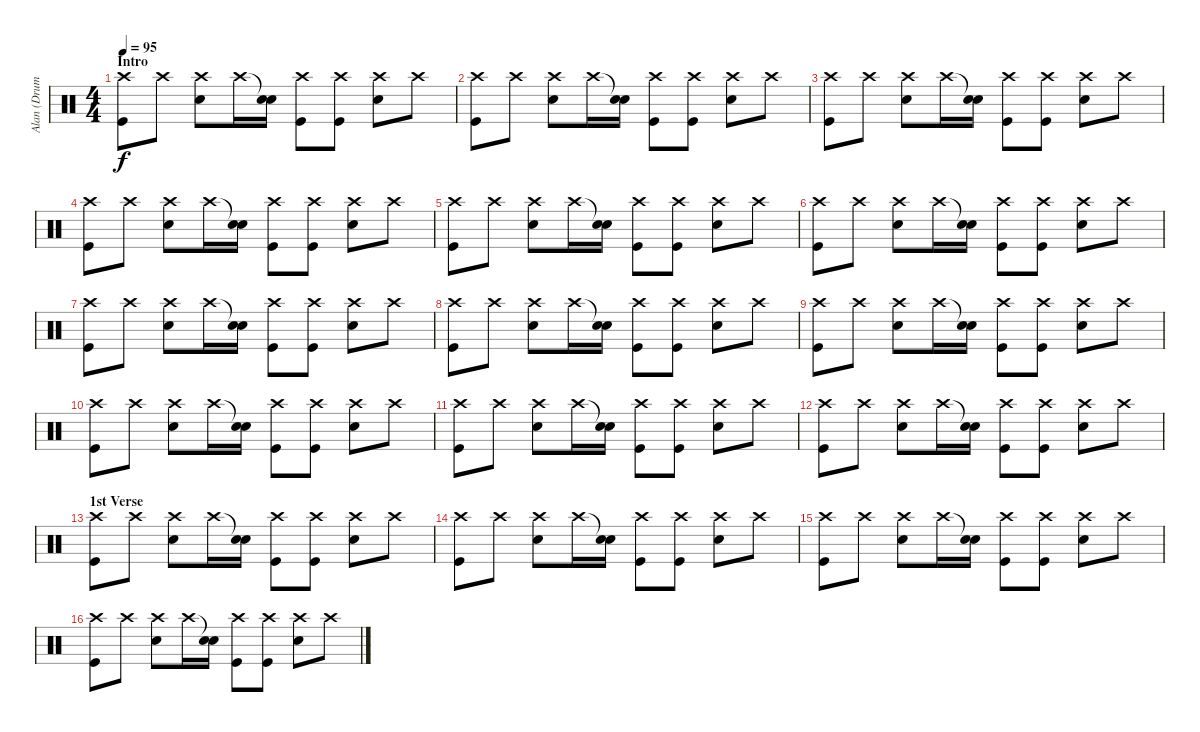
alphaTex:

\track ("Alan (Drums)" "Alan (Drum") {instrument percussion}
\staff {score}
\articulation defaults
\ts (4 4)
\section ("" "Intro")
\tempo 95
\clef neutral
\ks c
("Crash high (hit)" "Kick (hit)").8{dy f} "Crash high (hit)".8 ("Crash high (hit)" "Electric Snare (hit)").8 "Crash high (hit)".16 ("Snare (hit)"{t} "Electric Snare (hit)").16 ("Crash high (hit)" "Kick (hit)").8 ("Crash high (hit)" "Kick (hit)").8 ("Crash high (hit)" "Electric Snare (hit)").8 "Crash high (hit)".8 |
("Crash high (hit)" "Kick (hit)").8 "Crash high (hit)".8 ("Crash high (hit)" "Electric Snare (hit)").8 "Crash high (hit)".16 ("Snare (hit)"{t} "Electric Snare (hit)").16 ("Crash high (hit)" "Kick (hit)").8 ("Crash high (hit)" "Kick (hit)").8 ("Crash high (hit)" "Electric Snare (hit)").8 "Crash high (hit)".8 |
("Crash high (hit)" "Kick (hit)").8 "Crash high (hit)".8 ("Crash high (hit)" "Electric Snare (hit)").8 "Crash high (hit)".16 ("Snare (hit)"{t} "Electric Snare (hit)").16 ("Crash high (hit)" "Kick (hit)").8 ("Crash high (hit)" "Kick (hit)").8 ("Crash high (hit)" "Electric Snare (hit)").8 "Crash high (hit)".8 |
("Crash high (hit)" "Kick (hit)").8 "Crash high (hit)".8 ("Crash high (hit)" "Electric Snare (hit)").8 "Crash high (hit)".16 ("Snare (hit)"{t} "Electric Snare (hit)").16 ("Crash high (hit)" "Kick (hit)").8 ("Crash high (hit)" "Kick (hit)").8 ("Crash high (hit)" "Electric Snare (hit)").8 "Crash high (hit)".8 |
("Crash high (hit)" "Kick (hit)").8 "Crash high (hit)".8 ("Crash high (hit)" "Electric Snare (hit)").8 "Crash high (hit)".16 ("Snare (hit)"{t} "Electric Snare (hit)").16 ("Crash high (hit)" "Kick (hit)").8 ("Crash high (hit)" "Kick (hit)").8 ("Crash high (hit)" "Electric Snare (hit)").8 "Crash high (hit)".8 |
("Crash high (hit)" "Kick (hit)").8 "Crash high (hit)".8 ("Crash high (hit)" "Electric Snare (hit)").8 "Crash high (hit)".16 ("Snare (hit)"{t} "Electric Snare (hit)").16 ("Crash high (hit)" "Kick (hit)").8 ("Crash high (hit)" "Kick (hit)").8 ("Crash high (hit)" "Electric Snare (hit)").8 "Crash high (hit)".8 |
("Crash high (hit)" "Kick (hit)").8 "Crash high (hit)".8 ("Crash high (hit)" "Electric Snare (hit)").8 "Crash high (hit)".16 ("Snare (hit)"{t} "Electric Snare (hit)").16 ("Crash high (hit)" "Kick (hit)").8 ("Crash high (hit)" "Kick (hit)").8 ("Crash high (hit)" "Electric Snare (hit)").8 "Crash high (hit)".8 |
("Crash high (hit)" "Kick (hit)").8 "Crash high (hit)".8 ("Crash high (hit)" "Electric Snare (hit)").8 "Crash high (hit)".16 ("Snare (hit)"{t} "Electric Snare (hit)").16 ("Crash high (hit)" "Kick (hit)").8 ("Crash high (hit)" "Kick (hit)").8 ("Crash high (hit)" "Electric Snare (hit)").8 "Crash high (hit)".8 |
("Crash high (hit)" "Kick (hit)").8 "Crash high (hit)".8 ("Crash high (hit)" "Electric Snare (hit)").8 "Crash high (hit)".16 ("Snare (hit)"{t} "Electric Snare (hit)").16 ("Crash high (hit)" "Kick (hit)").8 ("Crash high (hit)" "Kick (hit)").8 ("Crash high (hit)" "Electric Snare (hit)").8 "Crash high (hit)".8 |
("Crash high (hit)" "Kick (hit)").8 "Crash high (hit)".8 ("Crash high (hit)" "Electric Snare (hit)").8 "Crash high (hit)".16 ("Snare (hit)"{t} "Electric Snare (hit)").16 ("Crash high (hit)" "Kick (hit)").8 ("Crash high (hit)" "Kick (hit)").8 ("Crash high (hit)" "Electric Snare (hit)").8 "Crash high (hit)".8 |
("Crash high (hit)" "Kick (hit)").8 "Crash high (hit)".8 ("Crash high (hit)" "Electric Snare (hit)").8 "Crash high (hit)".16 ("Snare (hit)"{t} "Electric Snare (hit)").16 ("Crash high (hit)" "Kick (hit)").8 ("Crash high (hit)" "Kick (hit)").8 ("Crash high (hit)" "Electric Snare (hit)").8 "Crash high (hit)".8 |
("Crash high (hit)" "Kick (hit)").8 "Crash high (hit)".8 ("Crash high (hit)" "Electric Snare (hit)").8 "Crash high (hit)".16 ("Snare (hit)"{t} "Electric Snare (hit)").16 ("Crash high (hit)" "Kick (hit)").8 ("Crash high (hit)" "Kick (hit)").8 ("Crash high (hit)" "Electric Snare (hit)").8 "Crash high (hit)".8 |
\section ("" "1st Verse")
("Crash high (hit)" "Kick (hit)").8 "Crash high (hit)".8 ("Crash high (hit)" "Electric Snare (hit)").8 "Crash high (hit)".16 ("Snare (hit)"{t} "Electric Snare (hit)").16 ("Crash high (hit)" "Kick (hit)").8 ("Crash high (hit)" "Kick (hit)").8 ("Crash high (hit)" "Electric Snare (hit)").8 "Crash high (hit)".8 |
("Crash high (hit)" "Kick (hit)").8 "Crash high (hit)".8 ("Crash high (hit)" "Electric Snare (hit)").8 "Crash high (hit)".16 ("Snare (hit)"{t} "Electric Snare (hit)").16 ("Crash high (hit)" "Kick (hit)").8 ("Crash high (hit)" "Kick (hit)").8 ("Crash high (hit)" "Electric Snare (hit)").8 "Crash high (hit)".8 |
("Crash high (hit)" "Kick (hit)").8 "Crash high (hit)".8 ("Crash high (hit)" "Electric Snare (hit)").8 "Crash high (hit)".16 ("Snare (hit)"{t} "Electric Snare (hit)").16 ("Crash high (hit)" "Kick (hit)").8 ("Crash high (hit)" "Kick (hit)").8 ("Crash high (hit)" "Electric Snare (hit)").8 "Crash high (hit)".8 |
("Crash high (hit)" "Kick (hit)").8 "Crash high (hit)".8 ("Crash high (hit)" "Electric Snare (hit)").8 "Crash high (hit)".16 ("Snare (hit)"{t} "Electric Snare (hit)").16 ("Crash high (hit)" "Kick (hit)").8 ("Crash high (hit)" "Kick (hit)").8 ("Crash high (hit)" "Electric Snare (hit)").8 "Crash high (hit)".8
